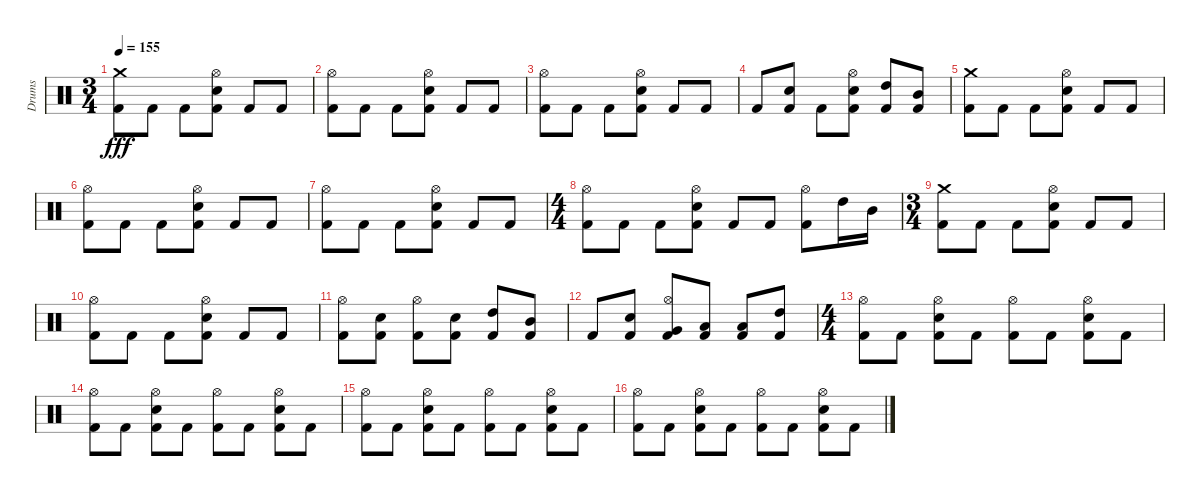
\track ("Drums" "Drums") {instrument percussion}
\staff {score}
\articulation defaults
\ts (3 4)
\tempo 155
\clef neutral
\ks c
("Crash medium (hit)" "Kick (hit) 2").8{dy fff} "Kick (hit) 2".8 "Kick (hit) 2".8 ("Electric Snare (hit)" "Hi-Hat (open)" "Kick (hit) 2").8 "Kick (hit) 2".8 "Kick (hit) 2".8 |
("Hi-Hat (open)" "Kick (hit) 2").8 "Kick (hit) 2".8 "Kick (hit) 2".8 ("Electric Snare (hit)" "Hi-Hat (open)" "Kick (hit) 2").8 "Kick (hit) 2".8 "Kick (hit) 2".8 |
("Hi-Hat (open)" "Kick (hit) 2").8 "Kick (hit) 2".8 "Kick (hit) 2".8 ("Electric Snare (hit)" "Hi-Hat (open)" "Kick (hit) 2").8 "Kick (hit) 2".8 "Kick (hit) 2".8 |
"Kick (hit) 2".8 ("Electric Snare (hit)" "Kick (hit) 2").8 "Kick (hit) 2".8 ("Electric Snare (hit)" "Hi-Hat (open)" "Kick (hit) 2").8 ("High Tom (hit)" "Kick (hit) 2").8 ("Mid Tom (hit)" "Kick (hit) 2").8 |
("Crash medium (hit)" "Kick (hit) 2").8 "Kick (hit) 2".8 "Kick (hit) 2".8 ("Electric Snare (hit)" "Hi-Hat (open)" "Kick (hit) 2").8 "Kick (hit) 2".8 "Kick (hit) 2".8 |
("Hi-Hat (open)" "Kick (hit) 2").8 "Kick (hit) 2".8 "Kick (hit) 2".8 ("Electric Snare (hit)" "Hi-Hat (open)" "Kick (hit) 2").8 "Kick (hit) 2".8 "Kick (hit) 2".8 |
("Hi-Hat (open)" "Kick (hit) 2").8 "Kick (hit) 2".8 "Kick (hit) 2".8 ("Electric Snare (hit)" "Hi-Hat (open)" "Kick (hit) 2").8 "Kick (hit) 2".8 "Kick (hit) 2".8 |
\ts (4 4)
("Hi-Hat (open)" "Kick (hit) 2").8 "Kick (hit) 2".8 "Kick (hit) 2".8 ("Electric Snare (hit)" "Hi-Hat (open)" "Kick (hit) 2").8 "Kick (hit) 2".8 "Kick (hit) 2".8 ("Hi-Hat (open)" "Kick (hit) 2").8 "High Tom (hit)".16 "Mid Tom (hit)".16 |
\ts (3 4)
("Crash medium (hit)" "Kick (hit) 2").8 "Kick (hit) 2".8 "Kick (hit) 2".8 ("Electric Snare (hit)" "Hi-Hat (open)" "Kick (hit) 2").8 "Kick (hit) 2".8 "Kick (hit) 2".8 |
("Hi-Hat (open)" "Kick (hit) 2").8 "Kick (hit) 2".8 "Kick (hit) 2".8 ("Electric Snare (hit)" "Hi-Hat (open)" "Kick (hit) 2").8 "Kick (hit) 2".8 "Kick (hit) 2".8 |
("Hi-Hat (open)" "Kick (hit) 2").8 ("Electric Snare (hit)" "Kick (hit) 2").8 ("Hi-Hat (open)" "Kick (hit) 2").8 ("Electric Snare (hit)" "Kick (hit) 2").8 ("High Tom (hit)" "Kick (hit) 2").8 ("Mid Tom (hit)" "Kick (hit) 2").8 |
"Kick (hit) 2".8 ("Electric Snare (hit)" "Kick (hit) 2").8 ("Hi-Hat (open)" "Very Low Tom (hit)" "Kick (hit) 2").8 ("Low Floor Tom (hit)" "Kick (hit) 2").8 ("Low Tom (hit)" "Kick (hit) 2").8 ("High Tom (hit)" "Kick (hit) 2").8 |
\ts (4 4)
("Hi-Hat (open)" "Kick (hit) 2").8 "Kick (hit) 2".8 ("Electric Snare (hit)" "Hi-Hat (open)" "Kick (hit) 2").8 "Kick (hit) 2".8 ("Hi-Hat (open)" "Kick (hit) 2").8 "Kick (hit) 2".8 ("Electric Snare (hit)" "Hi-Hat (open)" "Kick (hit) 2").8 "Kick (hit) 2".8 |
("Hi-Hat (open)" "Kick (hit) 2").8 "Kick (hit) 2".8 ("Electric Snare (hit)" "Hi-Hat (open)" "Kick (hit) 2").8 "Kick (hit) 2".8 ("Hi-Hat (open)" "Kick (hit) 2").8 "Kick (hit) 2".8 ("Electric Snare (hit)" "Hi-Hat (open)" "Kick (hit) 2").8 "Kick (hit) 2".8 |
("Hi-Hat (open)" "Kick (hit) 2").8 "Kick (hit) 2".8 ("Electric Snare (hit)" "Hi-Hat (open)" "Kick (hit) 2").8 "Kick (hit) 2".8 ("Hi-Hat (open)" "Kick (hit) 2").8 "Kick (hit) 2".8 ("Electric Snare (hit)" "Hi-Hat (open)" "Kick (hit) 2").8 "Kick (hit) 2".8 |
("Hi-Hat (open)" "Kick (hit) 2").8 "Kick (hit) 2".8 ("Electric Snare (hit)" "Hi-Hat (open)" "Kick (hit) 2").8 "Kick (hit) 2".8 ("Hi-Hat (open)" "Kick (hit) 2").8 "Kick (hit) 2".8 ("Electric Snare (hit)" "Hi-Hat (open)" "Kick (hit) 2").8 "Kick (hit) 2".8
